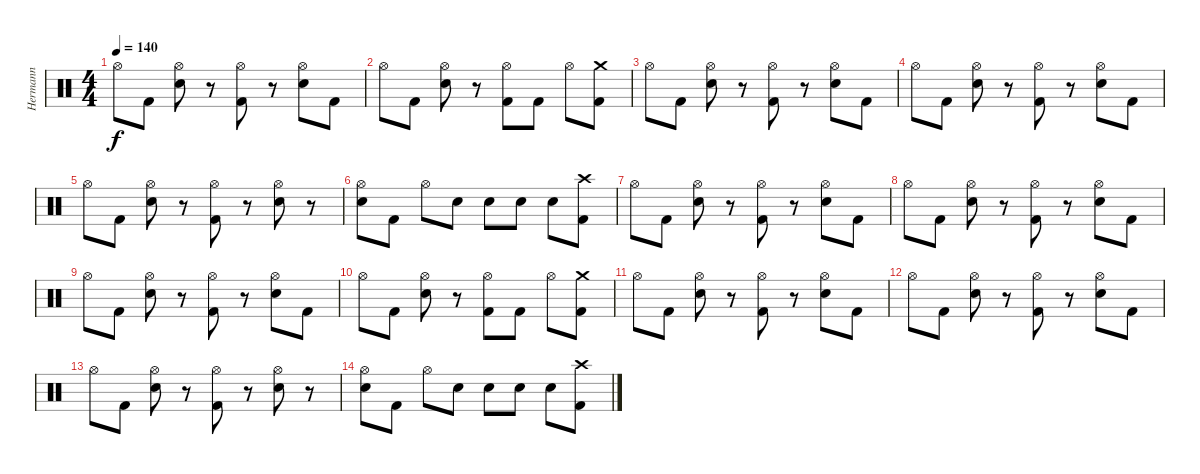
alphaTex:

\track ("Hermann" "Hermann") {instrument percussion}
\staff {score}
\articulation defaults
\ts (4 4)
\tempo 140
\clef neutral
\ks c "Hi-Hat (open)".8{dy f} "Kick (hit) 2".8
("Hi-Hat (open)" "Electric Snare (hit)").8 r.8 ("Hi-Hat (open)" "Kick (hit) 2").8 r.8 ("Hi-Hat (open)" "Electric Snare (hit)").8 "Kick (hit) 2".8 |
"Hi-Hat (open)".8 "Kick (hit) 2".8 ("Hi-Hat (open)" "Electric Snare (hit)").8 r.8 ("Hi-Hat (open)" "Kick (hit) 2").8 "Kick (hit) 2".8 "Hi-Hat (open)".8 ("Crash medium (hit)" "Kick (hit) 2").8 |
"Hi-Hat (open)".8 "Kick (hit) 2".8 ("Hi-Hat (open)" "Electric Snare (hit)").8 r.8 ("Hi-Hat (open)" "Kick (hit) 2").8 r.8 ("Hi-Hat (open)" "Electric Snare (hit)").8 "Kick (hit) 2".8 |
"Hi-Hat (open)".8 "Kick (hit) 2".8 ("Hi-Hat (open)" "Electric Snare (hit)").8 r.8 ("Hi-Hat (open)" "Kick (hit) 2").8 r.8 ("Hi-Hat (open)" "Electric Snare (hit)").8 "Kick (hit) 2".8 |
"Hi-Hat (open)".8 "Kick (hit) 2".8 ("Hi-Hat (open)" "Electric Snare (hit)").8 r.8 ("Hi-Hat (open)" "Kick (hit) 2").8 r.8 ("Hi-Hat (open)" "Electric Snare (hit)").8 r.8 |
("Hi-Hat (open)" "Electric Snare (hit)").8 "Kick (hit) 2".8 "Hi-Hat (open)".8 "Electric Snare (hit)".8 "Electric Snare (hit)".8 "Electric Snare (hit)".8 "Electric Snare (hit)".8 ("Crash high (hit)" "Kick (hit) 2").8 |
"Hi-Hat (open)".8 "Kick (hit) 2".8 ("Hi-Hat (open)" "Electric Snare (hit)").8 r.8 ("Hi-Hat (open)" "Kick (hit) 2").8 r.8 ("Hi-Hat (open)" "Electric Snare (hit)").8 "Kick (hit) 2".8 |
"Hi-Hat (open)".8 "Kick (hit) 2".8 ("Hi-Hat (open)" "Electric Snare (hit)").8 r.8 ("Hi-Hat (open)" "Kick (hit) 2").8 r.8 ("Hi-Hat (open)" "Electric Snare (hit)").8 "Kick (hit) 2".8 |
"Hi-Hat (open)".8 "Kick (hit) 2".8 ("Hi-Hat (open)" "Electric Snare (hit)").8 r.8 ("Hi-Hat (open)" "Kick (hit) 2").8 r.8 ("Hi-Hat (open)" "Electric Snare (hit)").8 "Kick (hit) 2".8 |
"Hi-Hat (open)".8 "Kick (hit) 2".8 ("Hi-Hat (open)" "Electric Snare (hit)").8 r.8 ("Hi-Hat (open)" "Kick (hit) 2").8 "Kick (hit) 2".8 "Hi-Hat (open)".8 ("Crash medium (hit)" "Kick (hit) 2").8 |
"Hi-Hat (open)".8 "Kick (hit) 2".8 ("Hi-Hat (open)" "Electric Snare (hit)").8 r.8 ("Hi-Hat (open)" "Kick (hit) 2").8 r.8 ("Hi-Hat (open)" "Electric Snare (hit)").8 "Kick (hit) 2".8 |
"Hi-Hat (open)".8 "Kick (hit) 2".8 ("Hi-Hat (open)" "Electric Snare (hit)").8 r.8 ("Hi-Hat (open)" "Kick (hit) 2").8 r.8 ("Hi-Hat (open)" "Electric Snare (hit)").8 "Kick (hit) 2".8 |
"Hi-Hat (open)".8 "Kick (hit) 2".8 ("Hi-Hat (open)" "Electric Snare (hit)").8 r.8 ("Hi-Hat (open)" "Kick (hit) 2").8 r.8 ("Hi-Hat (open)" "Electric Snare (hit)").8 r.8 |
("Hi-Hat (open)" "Electric Snare (hit)").8 "Kick (hit) 2".8 "Hi-Hat (open)".8 "Electric Snare (hit)".8 "Electric Snare (hit)".8 "Electric Snare (hit)".8 "Electric Snare (hit)".8 ("Crash high (hit)" "Kick (hit) 2").8
